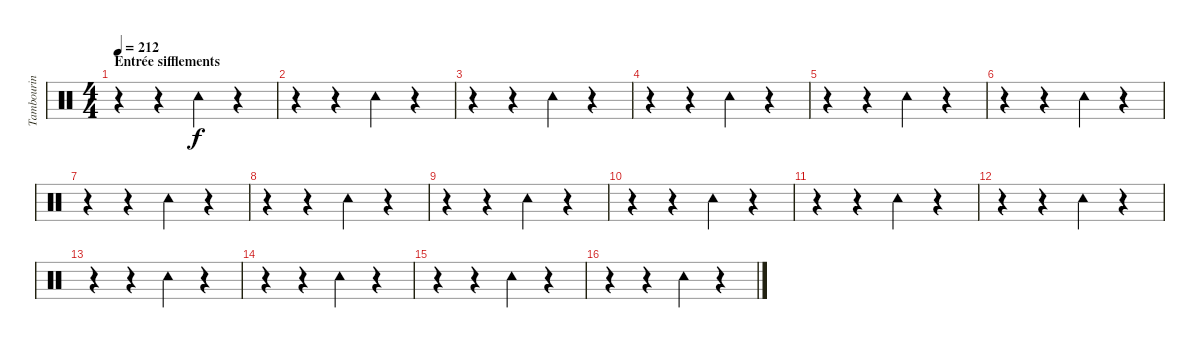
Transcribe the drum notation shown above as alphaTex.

\track ("Tambourin" "Tambourin") {instrument percussion}
\staff {score}
\articulation defaults
\ts (4 4)
\section ("" "Entrée sifflements")
\tempo 212
\clef neutral
\ks c
r.4{dy f} r.4 "Tambourine (hit)".4 r.4 |
r.4 r.4 "Tambourine (hit)".4 r.4 |
r.4 r.4 "Tambourine (hit)".4 r.4 |
r.4 r.4 "Tambourine (hit)".4 r.4 |
r.4 r.4 "Tambourine (hit)".4 r.4 |
r.4 r.4 "Tambourine (hit)".4 r.4 |
r.4 r.4 "Tambourine (hit)".4 r.4 |
r.4 r.4 "Tambourine (hit)".4 r.4 |
r.4 r.4 "Tambourine (hit)".4 r.4 |
r.4 r.4 "Tambourine (hit)".4 r.4 |
r.4 r.4 "Tambourine (hit)".4 r.4 |
r.4 r.4 "Tambourine (hit)".4 r.4 |
r.4 r.4 "Tambourine (hit)".4 r.4 |
r.4 r.4 "Tambourine (hit)".4 r.4 |
r.4 r.4 "Tambourine (hit)".4 r.4 |
r.4 r.4 "Tambourine (hit)".4 r.4
